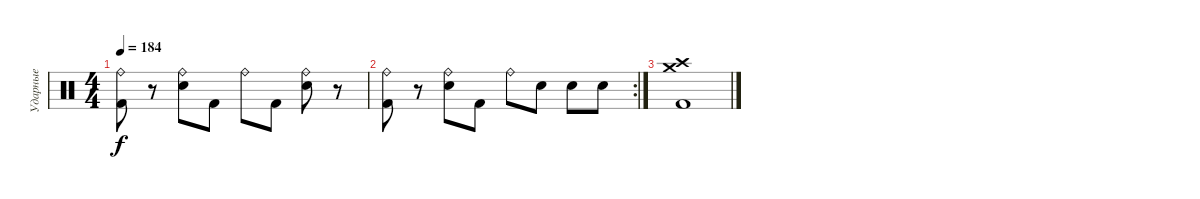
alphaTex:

\track ("Ударные" "Ударные") {instrument percussion}
\staff {score}
\articulation defaults
\ts (4 4)
\tempo 184
\clef neutral
\ks c
("Ride (bell)" "Kick (hit) 2").8{dy f} r.8 ("Ride (bell)" "Snare (hit) 2").8 "Kick (hit) 2".8 "Ride (bell)".8 "Kick (hit) 2".8 ("Ride (bell)" "Snare (hit) 2").8 r.8 |
\rc 2
("Ride (bell)" "Kick (hit) 2").8 r.8 ("Ride (bell)" "Snare (hit) 2").8 "Kick (hit) 2".8 "Ride (bell)".8 "Snare (hit) 2".8 "Snare (hit) 2".8 "Snare (hit) 2".8 |
("Crash high (hit)" "Crash medium (hit)" "Kick (hit) 2").1
